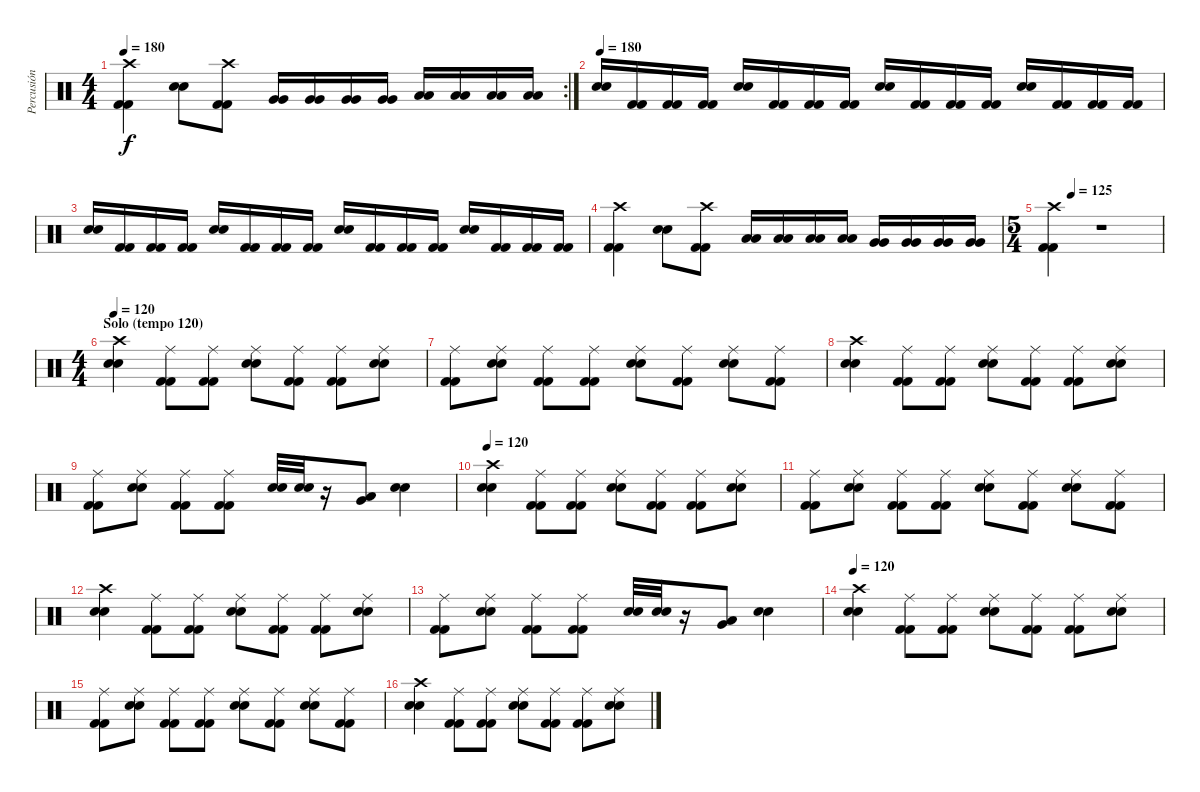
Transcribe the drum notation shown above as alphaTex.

\track ("Percusión" "Percusión") {instrument percussion}
\staff {score}
\articulation defaults
\rc 2
\ts (4 4)
\tempo 180
\clef neutral
\ks c
("Crash high (hit)" "Kick (hit) 2" "Kick (hit) 2").4{dy f} ("Snare (hit) 2" "Snare (hit) 2").8 ("Crash high (hit)" "Kick (hit) 2" "Kick (hit) 2").8 ("Very Low Tom (hit)" "Very Low Tom (hit)").16 ("Very Low Tom (hit)" "Very Low Tom (hit)").16 ("Very Low Tom (hit)" "Very Low Tom (hit)").16 ("Very Low Tom (hit)" "Very Low Tom (hit)").16 ("Low Floor Tom (hit)" "Low Floor Tom (hit)").16 ("Low Floor Tom (hit)" "Low Floor Tom (hit)").16 ("Low Floor Tom (hit)" "Low Floor Tom (hit)").16 ("Low Floor Tom (hit)" "Low Floor Tom (hit)").16 |
\tempo 180
("Snare (hit) 2" "Snare (hit) 2").16 ("Kick (hit) 2" "Kick (hit) 2").16 ("Kick (hit) 2" "Kick (hit) 2").16 ("Kick (hit) 2" "Kick (hit) 2").16 ("Snare (hit) 2" "Snare (hit) 2").16 ("Kick (hit) 2" "Kick (hit) 2").16 ("Kick (hit) 2" "Kick (hit) 2").16 ("Kick (hit) 2" "Kick (hit) 2").16 ("Snare (hit) 2" "Snare (hit) 2").16 ("Kick (hit) 2" "Kick (hit) 2").16 ("Kick (hit) 2" "Kick (hit) 2").16 ("Kick (hit) 2" "Kick (hit) 2").16 ("Snare (hit) 2" "Snare (hit) 2").16 ("Kick (hit) 2" "Kick (hit) 2").16 ("Kick (hit) 2" "Kick (hit) 2").16 ("Kick (hit) 2" "Kick (hit) 2").16 |
("Snare (hit) 2" "Snare (hit) 2").16 ("Kick (hit) 2" "Kick (hit) 2").16 ("Kick (hit) 2" "Kick (hit) 2").16 ("Kick (hit) 2" "Kick (hit) 2").16 ("Snare (hit) 2" "Snare (hit) 2").16 ("Kick (hit) 2" "Kick (hit) 2").16 ("Kick (hit) 2" "Kick (hit) 2").16 ("Kick (hit) 2" "Kick (hit) 2").16 ("Snare (hit) 2" "Snare (hit) 2").16 ("Kick (hit) 2" "Kick (hit) 2").16 ("Kick (hit) 2" "Kick (hit) 2").16 ("Kick (hit) 2" "Kick (hit) 2").16 ("Snare (hit) 2" "Snare (hit) 2").16 ("Kick (hit) 2" "Kick (hit) 2").16 ("Kick (hit) 2" "Kick (hit) 2").16 ("Kick (hit) 2" "Kick (hit) 2").16 |
("Crash high (hit)" "Kick (hit) 2" "Kick (hit) 2").4 ("Snare (hit) 2" "Snare (hit) 2").8 ("Crash high (hit)" "Kick (hit) 2" "Kick (hit) 2").8 ("Low Tom (hit)" "Low Tom (hit)").16 ("Low Tom (hit)" "Low Tom (hit)").16 ("Low Tom (hit)" "Low Tom (hit)").16 ("Low Tom (hit)" "Low Tom (hit)").16 ("Very Low Tom (hit)" "Very Low Tom (hit)").16 ("Very Low Tom (hit)" "Very Low Tom (hit)").16 ("Very Low Tom (hit)" "Very Low Tom (hit)").16 ("Very Low Tom (hit)" "Very Low Tom (hit)").16 |
\ts (5 4)
\tempo (125 0.2)
("Crash high (hit)" "Kick (hit) 2" "Kick (hit) 2").4 r.1 |
\ts (4 4)
\section ("" "Solo (tempo 120)")
\tempo 120
("Crash high (hit)" "Snare (hit) 2" "Snare (hit) 2").4 ("Ride (middle)" "Kick (hit) 2" "Kick (hit) 2").8 ("Ride (middle)" "Kick (hit) 2" "Kick (hit) 2").8 ("Ride (middle)" "Snare (hit) 2" "Snare (hit) 2").8 ("Ride (middle)" "Kick (hit) 2" "Kick (hit) 2").8 ("Ride (middle)" "Kick (hit) 2" "Kick (hit) 2").8 ("Ride (middle)" "Snare (hit) 2" "Snare (hit) 2").8 |
("Ride (middle)" "Kick (hit) 2" "Kick (hit) 2").8 ("Ride (middle)" "Snare (hit) 2" "Snare (hit) 2").8 ("Ride (middle)" "Kick (hit) 2" "Kick (hit) 2").8 ("Ride (middle)" "Kick (hit) 2" "Kick (hit) 2").8 ("Ride (middle)" "Snare (hit) 2" "Snare (hit) 2").8 ("Ride (middle)" "Kick (hit) 2" "Kick (hit) 2").8 ("Ride (middle)" "Snare (hit) 2" "Snare (hit) 2").8 ("Ride (middle)" "Kick (hit) 2" "Kick (hit) 2").8 |
("Crash high (hit)" "Snare (hit) 2" "Snare (hit) 2").4 ("Ride (middle)" "Kick (hit) 2" "Kick (hit) 2").8 ("Ride (middle)" "Kick (hit) 2" "Kick (hit) 2").8 ("Ride (middle)" "Snare (hit) 2" "Snare (hit) 2").8 ("Ride (middle)" "Kick (hit) 2" "Kick (hit) 2").8 ("Ride (middle)" "Kick (hit) 2" "Kick (hit) 2").8 ("Ride (middle)" "Snare (hit) 2" "Snare (hit) 2").8 |
("Ride (middle)" "Kick (hit) 2" "Kick (hit) 2").8 ("Ride (middle)" "Snare (hit) 2" "Snare (hit) 2").8 ("Ride (middle)" "Kick (hit) 2" "Kick (hit) 2").8 ("Ride (middle)" "Kick (hit) 2" "Kick (hit) 2").8 ("Electric Snare (hit)" "Electric Snare (hit)").32 ("Electric Snare (hit)" "Electric Snare (hit)").32 r.16 ("Very Low Tom (hit)" "Low Floor Tom (hit)").8 ("Snare (hit) 2" "Snare (hit) 2").4 |
\tempo 120
("Crash high (hit)" "Snare (hit) 2" "Snare (hit) 2").4 ("Ride (middle)" "Kick (hit) 2" "Kick (hit) 2").8 ("Ride (middle)" "Kick (hit) 2" "Kick (hit) 2").8 ("Ride (middle)" "Snare (hit) 2" "Snare (hit) 2").8 ("Ride (middle)" "Kick (hit) 2" "Kick (hit) 2").8 ("Ride (middle)" "Kick (hit) 2" "Kick (hit) 2").8 ("Ride (middle)" "Snare (hit) 2" "Snare (hit) 2").8 |
("Ride (middle)" "Kick (hit) 2" "Kick (hit) 2").8 ("Ride (middle)" "Snare (hit) 2" "Snare (hit) 2").8 ("Ride (middle)" "Kick (hit) 2" "Kick (hit) 2").8 ("Ride (middle)" "Kick (hit) 2" "Kick (hit) 2").8 ("Ride (middle)" "Snare (hit) 2" "Snare (hit) 2").8 ("Ride (middle)" "Kick (hit) 2" "Kick (hit) 2").8 ("Ride (middle)" "Snare (hit) 2" "Snare (hit) 2").8 ("Ride (middle)" "Kick (hit) 2" "Kick (hit) 2").8 |
("Crash high (hit)" "Snare (hit) 2" "Snare (hit) 2").4 ("Ride (middle)" "Kick (hit) 2" "Kick (hit) 2").8 ("Ride (middle)" "Kick (hit) 2" "Kick (hit) 2").8 ("Ride (middle)" "Snare (hit) 2" "Snare (hit) 2").8 ("Ride (middle)" "Kick (hit) 2" "Kick (hit) 2").8 ("Ride (middle)" "Kick (hit) 2" "Kick (hit) 2").8 ("Ride (middle)" "Snare (hit) 2" "Snare (hit) 2").8 |
("Ride (middle)" "Kick (hit) 2" "Kick (hit) 2").8 ("Ride (middle)" "Snare (hit) 2" "Snare (hit) 2").8 ("Ride (middle)" "Kick (hit) 2" "Kick (hit) 2").8 ("Ride (middle)" "Kick (hit) 2" "Kick (hit) 2").8 ("Electric Snare (hit)" "Electric Snare (hit)").32 ("Electric Snare (hit)" "Electric Snare (hit)").32 r.16 ("Very Low Tom (hit)" "Low Floor Tom (hit)").8 ("Snare (hit) 2" "Snare (hit) 2").4 |
\tempo 120
("Crash high (hit)" "Snare (hit) 2" "Snare (hit) 2").4 ("Ride (middle)" "Kick (hit) 2" "Kick (hit) 2").8 ("Ride (middle)" "Kick (hit) 2" "Kick (hit) 2").8 ("Ride (middle)" "Snare (hit) 2" "Snare (hit) 2").8 ("Ride (middle)" "Kick (hit) 2" "Kick (hit) 2").8 ("Ride (middle)" "Kick (hit) 2" "Kick (hit) 2").8 ("Ride (middle)" "Snare (hit) 2" "Snare (hit) 2").8 |
("Ride (middle)" "Kick (hit) 2" "Kick (hit) 2").8 ("Ride (middle)" "Snare (hit) 2" "Snare (hit) 2").8 ("Ride (middle)" "Kick (hit) 2" "Kick (hit) 2").8 ("Ride (middle)" "Kick (hit) 2" "Kick (hit) 2").8 ("Ride (middle)" "Snare (hit) 2" "Snare (hit) 2").8 ("Ride (middle)" "Kick (hit) 2" "Kick (hit) 2").8 ("Ride (middle)" "Snare (hit) 2" "Snare (hit) 2").8 ("Ride (middle)" "Kick (hit) 2" "Kick (hit) 2").8 |
("Crash high (hit)" "Snare (hit) 2" "Snare (hit) 2").4 ("Ride (middle)" "Kick (hit) 2" "Kick (hit) 2").8 ("Ride (middle)" "Kick (hit) 2" "Kick (hit) 2").8 ("Ride (middle)" "Snare (hit) 2" "Snare (hit) 2").8 ("Ride (middle)" "Kick (hit) 2" "Kick (hit) 2").8 ("Ride (middle)" "Kick (hit) 2" "Kick (hit) 2").8 ("Ride (middle)" "Snare (hit) 2" "Snare (hit) 2").8
